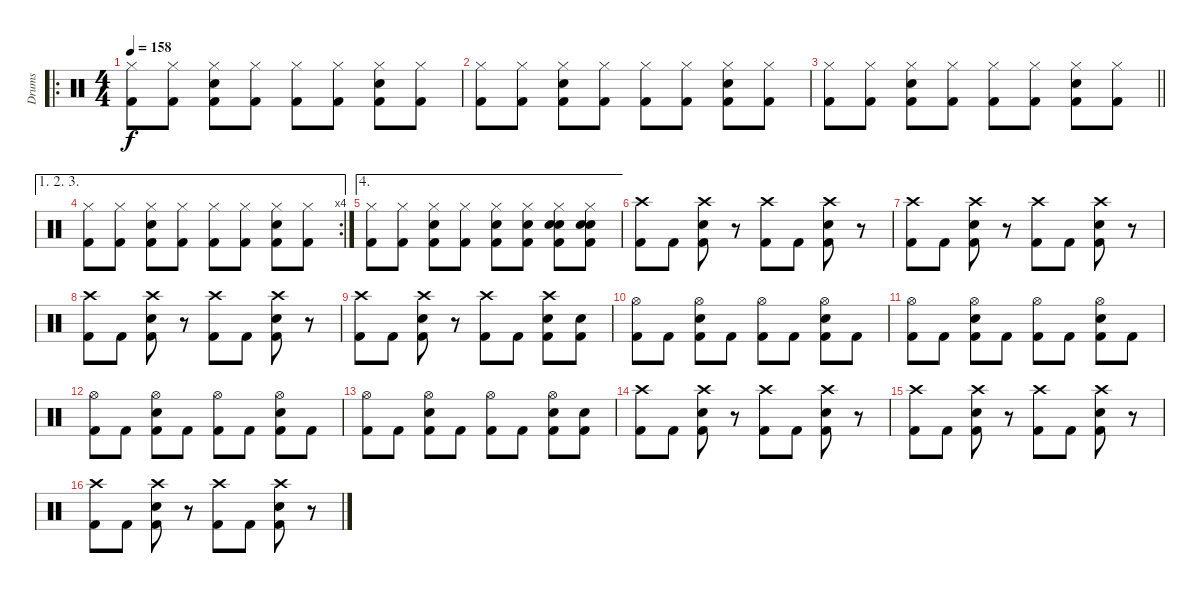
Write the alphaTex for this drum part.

\track ("Drums" "Drums") {instrument percussion}
\staff {score}
\articulation defaults
\ro
\ts (4 4)
\tempo 158
\clef neutral
\ks c
("Hi-Hat (closed)" "Kick (hit) 2").8{dy f} ("Hi-Hat (closed)" "Kick (hit) 2").8 ("Hi-Hat (closed)" "Electric Snare (hit)" "Kick (hit) 2").8 ("Hi-Hat (closed)" "Kick (hit) 2").8 ("Hi-Hat (closed)" "Kick (hit) 2").8 ("Hi-Hat (closed)" "Kick (hit) 2").8 ("Hi-Hat (closed)" "Kick (hit) 2" "Electric Snare (hit)").8 ("Hi-Hat (closed)" "Kick (hit) 2").8 |
("Hi-Hat (closed)" "Kick (hit) 2").8 ("Hi-Hat (closed)" "Kick (hit) 2").8 ("Hi-Hat (closed)" "Electric Snare (hit)" "Kick (hit) 2").8 ("Hi-Hat (closed)" "Kick (hit) 2").8 ("Hi-Hat (closed)" "Kick (hit) 2").8 ("Hi-Hat (closed)" "Kick (hit) 2").8 ("Hi-Hat (closed)" "Kick (hit) 2" "Electric Snare (hit)").8 ("Hi-Hat (closed)" "Kick (hit) 2").8 |
\barLineRight lightlight
("Hi-Hat (closed)" "Kick (hit) 2").8 ("Hi-Hat (closed)" "Kick (hit) 2").8 ("Hi-Hat (closed)" "Electric Snare (hit)" "Kick (hit) 2").8 ("Hi-Hat (closed)" "Kick (hit) 2").8 ("Hi-Hat (closed)" "Kick (hit) 2").8 ("Hi-Hat (closed)" "Kick (hit) 2").8 ("Hi-Hat (closed)" "Kick (hit) 2" "Electric Snare (hit)").8 ("Hi-Hat (closed)" "Kick (hit) 2").8 |
\ae (1 2 3)
\rc 4
("Hi-Hat (closed)" "Kick (hit) 2").8 ("Hi-Hat (closed)" "Kick (hit) 2").8 ("Hi-Hat (closed)" "Electric Snare (hit)" "Kick (hit) 2").8 ("Hi-Hat (closed)" "Kick (hit) 2").8 ("Hi-Hat (closed)" "Kick (hit) 2").8 ("Hi-Hat (closed)" "Kick (hit) 2").8 ("Hi-Hat (closed)" "Kick (hit) 2" "Electric Snare (hit)").8 ("Hi-Hat (closed)" "Kick (hit) 2").8 |
\ae 4
("Hi-Hat (closed)" "Kick (hit) 2").8 ("Hi-Hat (closed)" "Kick (hit) 2").8 ("Hi-Hat (closed)" "Electric Snare (hit)" "Kick (hit) 2").8 ("Hi-Hat (closed)" "Kick (hit) 2").8 ("Hi-Hat (closed)" "Electric Snare (hit)" "Kick (hit) 2").8 ("Hi-Hat (closed)" "Electric Snare (hit)" "Kick (hit) 2").8 ("Hi-Hat (closed)" "Electric Snare (hit)" "Kick (hit) 2" "Electric Snare (hit)").8 ("Hi-Hat (closed)" "Electric Snare (hit)" "Electric Snare (hit)" "Kick (hit) 2").8 |
("Crash high (hit)" "Kick (hit) 2").8 "Kick (hit) 2".8 ("Crash high (hit)" "Electric Snare (hit)" "Kick (hit) 2").8 r.8 ("Crash high (hit)" "Kick (hit) 2").8 "Kick (hit) 2".8 ("Crash high (hit)" "Electric Snare (hit)" "Kick (hit) 2").8 r.8 |
("Crash high (hit)" "Kick (hit) 2").8 "Kick (hit) 2".8 ("Crash high (hit)" "Electric Snare (hit)" "Kick (hit) 2").8 r.8 ("Crash high (hit)" "Kick (hit) 2").8 "Kick (hit) 2".8 ("Crash high (hit)" "Electric Snare (hit)" "Kick (hit) 2").8 r.8 |
("Crash high (hit)" "Kick (hit) 2").8 "Kick (hit) 2".8 ("Crash high (hit)" "Electric Snare (hit)" "Kick (hit) 2").8 r.8 ("Crash high (hit)" "Kick (hit) 2").8 "Kick (hit) 2".8 ("Crash high (hit)" "Electric Snare (hit)" "Kick (hit) 2").8 r.8 |
("Crash high (hit)" "Kick (hit) 2").8 "Kick (hit) 2".8 ("Crash high (hit)" "Electric Snare (hit)" "Kick (hit) 2").8 r.8 ("Crash high (hit)" "Kick (hit) 2").8 "Kick (hit) 2".8 ("Crash high (hit)" "Electric Snare (hit)" "Kick (hit) 2").8 ("Electric Snare (hit)" "Kick (hit) 2").8 |
("Hi-Hat (open)" "Kick (hit) 2").8 "Kick (hit) 2".8 ("Hi-Hat (open)" "Electric Snare (hit)" "Kick (hit) 2").8 "Kick (hit) 2".8 ("Hi-Hat (open)" "Kick (hit) 2").8 "Kick (hit) 2".8 ("Hi-Hat (open)" "Kick (hit) 2" "Electric Snare (hit)").8 "Kick (hit) 2".8 |
("Hi-Hat (open)" "Kick (hit) 2").8 "Kick (hit) 2".8 ("Hi-Hat (open)" "Electric Snare (hit)" "Kick (hit) 2").8 "Kick (hit) 2".8 ("Hi-Hat (open)" "Kick (hit) 2").8 "Kick (hit) 2".8 ("Hi-Hat (open)" "Kick (hit) 2" "Electric Snare (hit)").8 "Kick (hit) 2".8 |
("Hi-Hat (open)" "Kick (hit) 2").8 "Kick (hit) 2".8 ("Hi-Hat (open)" "Electric Snare (hit)" "Kick (hit) 2").8 "Kick (hit) 2".8 ("Hi-Hat (open)" "Kick (hit) 2").8 "Kick (hit) 2".8 ("Hi-Hat (open)" "Kick (hit) 2" "Electric Snare (hit)").8 "Kick (hit) 2".8 |
("Hi-Hat (open)" "Kick (hit) 2").8 "Kick (hit) 2".8 ("Hi-Hat (open)" "Electric Snare (hit)" "Kick (hit) 2").8 "Kick (hit) 2".8 ("Hi-Hat (open)" "Kick (hit) 2").8 "Kick (hit) 2".8 ("Hi-Hat (open)" "Kick (hit) 2" "Electric Snare (hit)").8 ("Electric Snare (hit)" "Kick (hit) 2").8 |
("Crash high (hit)" "Kick (hit) 2").8 "Kick (hit) 2".8 ("Crash high (hit)" "Electric Snare (hit)" "Kick (hit) 2").8 r.8 ("Crash high (hit)" "Kick (hit) 2").8 "Kick (hit) 2".8 ("Crash high (hit)" "Electric Snare (hit)" "Kick (hit) 2").8 r.8 |
("Crash high (hit)" "Kick (hit) 2").8 "Kick (hit) 2".8 ("Crash high (hit)" "Electric Snare (hit)" "Kick (hit) 2").8 r.8 ("Crash high (hit)" "Kick (hit) 2").8 "Kick (hit) 2".8 ("Crash high (hit)" "Electric Snare (hit)" "Kick (hit) 2").8 r.8 |
("Crash high (hit)" "Kick (hit) 2").8 "Kick (hit) 2".8 ("Crash high (hit)" "Electric Snare (hit)" "Kick (hit) 2").8 r.8 ("Crash high (hit)" "Kick (hit) 2").8 "Kick (hit) 2".8 ("Crash high (hit)" "Electric Snare (hit)" "Kick (hit) 2").8 r.8
